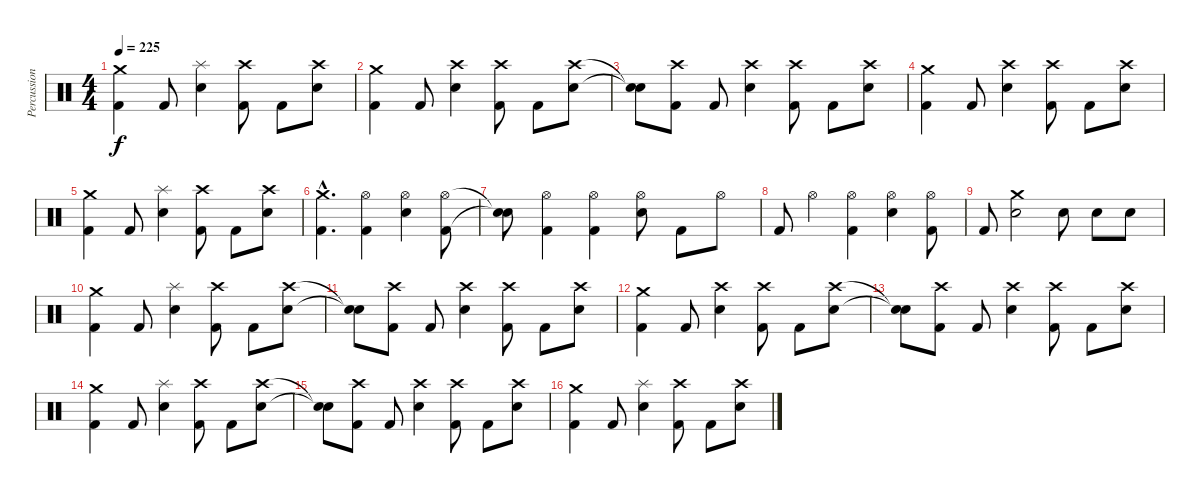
\track ("Percussion" "Percussion") {instrument percussion}
\staff {score}
\articulation defaults
\ts (4 4)
\tempo 225
\clef neutral
\ks c
("Crash medium (hit)" "Kick (hit) 2").4{dy f} "Kick (hit) 2".8 ("Splash (hit)" "Snare (hit) 2").4 ("Crash high (hit)" "Kick (hit) 2").8 "Kick (hit) 2".8 ("Crash high (hit)" "Snare (hit) 2").8 |
("Crash medium (hit)" "Kick (hit) 2").4 "Kick (hit) 2".8 ("Crash high (hit)" "Snare (hit) 2").4 ("Crash high (hit)" "Kick (hit) 2").8 "Kick (hit) 2".8 ("Crash high (hit)" "Snare (hit) 2").8 |
("Snare (hit)"{t} "Snare (hit)"{t}).8 ("Crash high (hit)" "Kick (hit) 2").8 "Kick (hit) 2".8 ("Crash high (hit)" "Snare (hit) 2").4 ("Crash high (hit)" "Kick (hit) 2").8 "Kick (hit) 2".8 ("Crash high (hit)" "Snare (hit) 2").8 |
("Crash medium (hit)" "Kick (hit) 2").4 "Kick (hit) 2".8 ("Crash high (hit)" "Snare (hit) 2").4 ("Crash high (hit)" "Kick (hit) 2").8 "Kick (hit) 2".8 ("Crash high (hit)" "Snare (hit) 2").8 |
("Crash medium (hit)" "Kick (hit) 2").4 "Kick (hit) 2".8 ("Splash (hit)" "Snare (hit) 2").4 ("Crash high (hit)" "Kick (hit) 2").8 "Kick (hit) 2".8 ("Crash high (hit)" "Snare (hit) 2").8 |
("Crash medium (hit)"{hac} "Kick (hit) 2"{hac}).4{d} ("Hi-Hat (open)" "Kick (hit) 2").4 ("Hi-Hat (open)" "Snare (hit) 2").4 ("Hi-Hat (open)" "Kick (hit) 2").8 |
("Snare (hit)"{t} "Snare (hit)"{t}).8 ("Hi-Hat (open)" "Kick (hit) 2").4 ("Hi-Hat (open)" "Kick (hit) 2").4 ("Hi-Hat (open)" "Snare (hit) 2").8 "Kick (hit) 2".8 "Hi-Hat (open)".8 |
"Kick (hit) 2".8 "Hi-Hat (open)".4 ("Hi-Hat (open)" "Kick (hit) 2").4 ("Hi-Hat (open)" "Snare (hit) 2").4 ("Hi-Hat (open)" "Kick (hit) 2").8 |
"Kick (hit) 2".8 ("Crash medium (hit)" "Snare (hit) 2").2 "Snare (hit) 2".8 "Snare (hit) 2".8 "Snare (hit) 2".8 |
("Crash medium (hit)" "Kick (hit) 2").4 "Kick (hit) 2".8 ("Splash (hit)" "Snare (hit) 2").4 ("Crash high (hit)" "Kick (hit) 2").8 "Kick (hit) 2".8 ("Crash high (hit)" "Snare (hit) 2").8 |
("Snare (hit)"{t} "Snare (hit)"{t}).8 ("Crash high (hit)" "Kick (hit) 2").8 "Kick (hit) 2".8 ("Crash high (hit)" "Snare (hit) 2").4 ("Crash high (hit)" "Kick (hit) 2").8 "Kick (hit) 2".8 ("Crash high (hit)" "Snare (hit) 2").8 |
("Crash medium (hit)" "Kick (hit) 2").4 "Kick (hit) 2".8 ("Crash high (hit)" "Snare (hit) 2").4 ("Crash high (hit)" "Kick (hit) 2").8 "Kick (hit) 2".8 ("Crash high (hit)" "Snare (hit) 2").8 |
("Snare (hit)"{t} "Snare (hit)"{t}).8 ("Crash high (hit)" "Kick (hit) 2").8 "Kick (hit) 2".8 ("Crash high (hit)" "Snare (hit) 2").4 ("Crash high (hit)" "Kick (hit) 2").8 "Kick (hit) 2".8 ("Crash high (hit)" "Snare (hit) 2").8 |
("Crash medium (hit)" "Kick (hit) 2").4 "Kick (hit) 2".8 ("Splash (hit)" "Snare (hit) 2").4 ("Crash high (hit)" "Kick (hit) 2").8 "Kick (hit) 2".8 ("Crash high (hit)" "Snare (hit) 2").8 |
("Snare (hit)"{t} "Snare (hit)"{t}).8 ("Crash high (hit)" "Kick (hit) 2").8 "Kick (hit) 2".8 ("Crash high (hit)" "Snare (hit) 2").4 ("Crash high (hit)" "Kick (hit) 2").8 "Kick (hit) 2".8 ("Crash high (hit)" "Snare (hit) 2").8 |
("Crash medium (hit)" "Kick (hit) 2").4 "Kick (hit) 2".8 ("Splash (hit)" "Snare (hit) 2").4 ("Crash high (hit)" "Kick (hit) 2").8 "Kick (hit) 2".8 ("Crash high (hit)" "Snare (hit) 2").8
